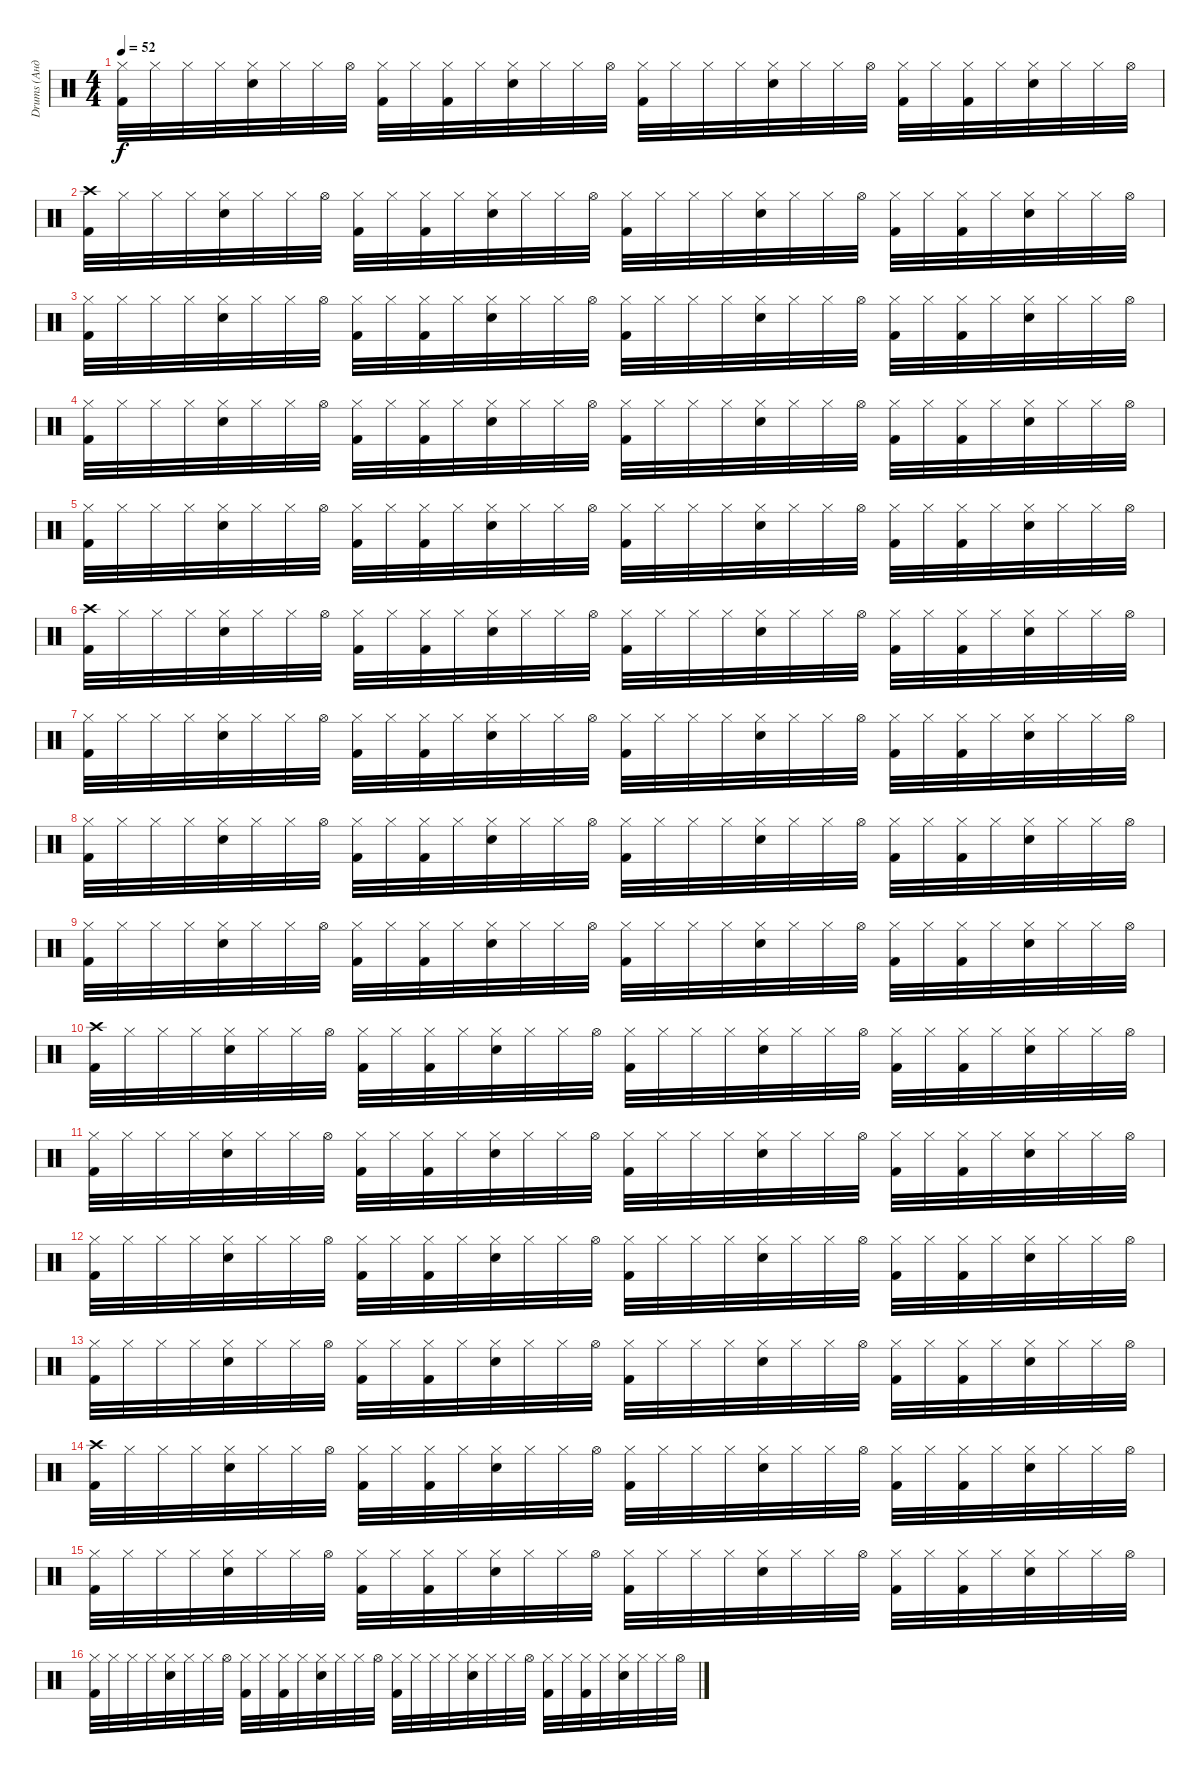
\track ("Drums (Андрей)" "Drums (Анд") {instrument percussion}
\staff {score}
\articulation defaults
\ts (4 4)
\tempo 52
\clef neutral
\ks c
("Hi-Hat (closed)" "Kick (hit) 2").32{dy f} "Hi-Hat (closed)".32 "Hi-Hat (closed)".32 "Hi-Hat (closed)".32 ("Hi-Hat (closed)" "Snare (hit) 2").32 "Hi-Hat (closed)".32 "Hi-Hat (closed)".32 "Hi-Hat (open)".32 ("Hi-Hat (closed)" "Kick (hit) 2").32 "Hi-Hat (closed)".32 ("Hi-Hat (closed)" "Kick (hit) 2").32 "Hi-Hat (closed)".32 ("Hi-Hat (closed)" "Snare (hit) 2").32 "Hi-Hat (closed)".32 "Hi-Hat (closed)".32 "Hi-Hat (open)".32 ("Hi-Hat (closed)" "Kick (hit) 2").32 "Hi-Hat (closed)".32 "Hi-Hat (closed)".32 "Hi-Hat (closed)".32 ("Hi-Hat (closed)" "Snare (hit) 2").32 "Hi-Hat (closed)".32 "Hi-Hat (closed)".32 "Hi-Hat (open)".32 ("Hi-Hat (closed)" "Kick (hit) 2").32 "Hi-Hat (closed)".32 ("Hi-Hat (closed)" "Kick (hit) 2").32 "Hi-Hat (closed)".32 ("Hi-Hat (closed)" "Snare (hit) 2").32 "Hi-Hat (closed)".32 "Hi-Hat (closed)".32 "Hi-Hat (open)".32 |
("Crash high (hit)" "Kick (hit) 2").32 "Hi-Hat (closed)".32 "Hi-Hat (closed)".32 "Hi-Hat (closed)".32 ("Hi-Hat (closed)" "Snare (hit) 2").32 "Hi-Hat (closed)".32 "Hi-Hat (closed)".32 "Hi-Hat (open)".32 ("Hi-Hat (closed)" "Kick (hit) 2").32 "Hi-Hat (closed)".32 ("Hi-Hat (closed)" "Kick (hit) 2").32 "Hi-Hat (closed)".32 ("Hi-Hat (closed)" "Snare (hit) 2").32 "Hi-Hat (closed)".32 "Hi-Hat (closed)".32 "Hi-Hat (open)".32 ("Hi-Hat (closed)" "Kick (hit) 2").32 "Hi-Hat (closed)".32 "Hi-Hat (closed)".32 "Hi-Hat (closed)".32 ("Hi-Hat (closed)" "Snare (hit) 2").32 "Hi-Hat (closed)".32 "Hi-Hat (closed)".32 "Hi-Hat (open)".32 ("Hi-Hat (closed)" "Kick (hit) 2").32 "Hi-Hat (closed)".32 ("Hi-Hat (closed)" "Kick (hit) 2").32 "Hi-Hat (closed)".32 ("Hi-Hat (closed)" "Snare (hit) 2").32 "Hi-Hat (closed)".32 "Hi-Hat (closed)".32 "Hi-Hat (open)".32 |
("Hi-Hat (closed)" "Kick (hit) 2").32 "Hi-Hat (closed)".32 "Hi-Hat (closed)".32 "Hi-Hat (closed)".32 ("Hi-Hat (closed)" "Snare (hit) 2").32 "Hi-Hat (closed)".32 "Hi-Hat (closed)".32 "Hi-Hat (open)".32 ("Hi-Hat (closed)" "Kick (hit) 2").32 "Hi-Hat (closed)".32 ("Hi-Hat (closed)" "Kick (hit) 2").32 "Hi-Hat (closed)".32 ("Hi-Hat (closed)" "Snare (hit) 2").32 "Hi-Hat (closed)".32 "Hi-Hat (closed)".32 "Hi-Hat (open)".32 ("Hi-Hat (closed)" "Kick (hit) 2").32 "Hi-Hat (closed)".32 "Hi-Hat (closed)".32 "Hi-Hat (closed)".32 ("Hi-Hat (closed)" "Snare (hit) 2").32 "Hi-Hat (closed)".32 "Hi-Hat (closed)".32 "Hi-Hat (open)".32 ("Hi-Hat (closed)" "Kick (hit) 2").32 "Hi-Hat (closed)".32 ("Hi-Hat (closed)" "Kick (hit) 2").32 "Hi-Hat (closed)".32 ("Hi-Hat (closed)" "Snare (hit) 2").32 "Hi-Hat (closed)".32 "Hi-Hat (closed)".32 "Hi-Hat (open)".32 |
("Hi-Hat (closed)" "Kick (hit) 2").32 "Hi-Hat (closed)".32 "Hi-Hat (closed)".32 "Hi-Hat (closed)".32 ("Hi-Hat (closed)" "Snare (hit) 2").32 "Hi-Hat (closed)".32 "Hi-Hat (closed)".32 "Hi-Hat (open)".32 ("Hi-Hat (closed)" "Kick (hit) 2").32 "Hi-Hat (closed)".32 ("Hi-Hat (closed)" "Kick (hit) 2").32 "Hi-Hat (closed)".32 ("Hi-Hat (closed)" "Snare (hit) 2").32 "Hi-Hat (closed)".32 "Hi-Hat (closed)".32 "Hi-Hat (open)".32 ("Hi-Hat (closed)" "Kick (hit) 2").32 "Hi-Hat (closed)".32 "Hi-Hat (closed)".32 "Hi-Hat (closed)".32 ("Hi-Hat (closed)" "Snare (hit) 2").32 "Hi-Hat (closed)".32 "Hi-Hat (closed)".32 "Hi-Hat (open)".32 ("Hi-Hat (closed)" "Kick (hit) 2").32 "Hi-Hat (closed)".32 ("Hi-Hat (closed)" "Kick (hit) 2").32 "Hi-Hat (closed)".32 ("Hi-Hat (closed)" "Snare (hit) 2").32 "Hi-Hat (closed)".32 "Hi-Hat (closed)".32 "Hi-Hat (open)".32 |
("Hi-Hat (closed)" "Kick (hit) 2").32 "Hi-Hat (closed)".32 "Hi-Hat (closed)".32 "Hi-Hat (closed)".32 ("Hi-Hat (closed)" "Snare (hit) 2").32 "Hi-Hat (closed)".32 "Hi-Hat (closed)".32 "Hi-Hat (open)".32 ("Hi-Hat (closed)" "Kick (hit) 2").32 "Hi-Hat (closed)".32 ("Hi-Hat (closed)" "Kick (hit) 2").32 "Hi-Hat (closed)".32 ("Hi-Hat (closed)" "Snare (hit) 2").32 "Hi-Hat (closed)".32 "Hi-Hat (closed)".32 "Hi-Hat (open)".32 ("Hi-Hat (closed)" "Kick (hit) 2").32 "Hi-Hat (closed)".32 "Hi-Hat (closed)".32 "Hi-Hat (closed)".32 ("Hi-Hat (closed)" "Snare (hit) 2").32 "Hi-Hat (closed)".32 "Hi-Hat (closed)".32 "Hi-Hat (open)".32 ("Hi-Hat (closed)" "Kick (hit) 2").32 "Hi-Hat (closed)".32 ("Hi-Hat (closed)" "Kick (hit) 2").32 "Hi-Hat (closed)".32 ("Hi-Hat (closed)" "Snare (hit) 2").32 "Hi-Hat (closed)".32 "Hi-Hat (closed)".32 "Hi-Hat (open)".32 |
("Crash high (hit)" "Kick (hit) 2").32 "Hi-Hat (closed)".32 "Hi-Hat (closed)".32 "Hi-Hat (closed)".32 ("Hi-Hat (closed)" "Snare (hit) 2").32 "Hi-Hat (closed)".32 "Hi-Hat (closed)".32 "Hi-Hat (open)".32 ("Hi-Hat (closed)" "Kick (hit) 2").32 "Hi-Hat (closed)".32 ("Hi-Hat (closed)" "Kick (hit) 2").32 "Hi-Hat (closed)".32 ("Hi-Hat (closed)" "Snare (hit) 2").32 "Hi-Hat (closed)".32 "Hi-Hat (closed)".32 "Hi-Hat (open)".32 ("Hi-Hat (closed)" "Kick (hit) 2").32 "Hi-Hat (closed)".32 "Hi-Hat (closed)".32 "Hi-Hat (closed)".32 ("Hi-Hat (closed)" "Snare (hit) 2").32 "Hi-Hat (closed)".32 "Hi-Hat (closed)".32 "Hi-Hat (open)".32 ("Hi-Hat (closed)" "Kick (hit) 2").32 "Hi-Hat (closed)".32 ("Hi-Hat (closed)" "Kick (hit) 2").32 "Hi-Hat (closed)".32 ("Hi-Hat (closed)" "Snare (hit) 2").32 "Hi-Hat (closed)".32 "Hi-Hat (closed)".32 "Hi-Hat (open)".32 |
("Hi-Hat (closed)" "Kick (hit) 2").32 "Hi-Hat (closed)".32 "Hi-Hat (closed)".32 "Hi-Hat (closed)".32 ("Hi-Hat (closed)" "Snare (hit) 2").32 "Hi-Hat (closed)".32 "Hi-Hat (closed)".32 "Hi-Hat (open)".32 ("Hi-Hat (closed)" "Kick (hit) 2").32 "Hi-Hat (closed)".32 ("Hi-Hat (closed)" "Kick (hit) 2").32 "Hi-Hat (closed)".32 ("Hi-Hat (closed)" "Snare (hit) 2").32 "Hi-Hat (closed)".32 "Hi-Hat (closed)".32 "Hi-Hat (open)".32 ("Hi-Hat (closed)" "Kick (hit) 2").32 "Hi-Hat (closed)".32 "Hi-Hat (closed)".32 "Hi-Hat (closed)".32 ("Hi-Hat (closed)" "Snare (hit) 2").32 "Hi-Hat (closed)".32 "Hi-Hat (closed)".32 "Hi-Hat (open)".32 ("Hi-Hat (closed)" "Kick (hit) 2").32 "Hi-Hat (closed)".32 ("Hi-Hat (closed)" "Kick (hit) 2").32 "Hi-Hat (closed)".32 ("Hi-Hat (closed)" "Snare (hit) 2").32 "Hi-Hat (closed)".32 "Hi-Hat (closed)".32 "Hi-Hat (open)".32 |
("Hi-Hat (closed)" "Kick (hit) 2").32 "Hi-Hat (closed)".32 "Hi-Hat (closed)".32 "Hi-Hat (closed)".32 ("Hi-Hat (closed)" "Snare (hit) 2").32 "Hi-Hat (closed)".32 "Hi-Hat (closed)".32 "Hi-Hat (open)".32 ("Hi-Hat (closed)" "Kick (hit) 2").32 "Hi-Hat (closed)".32 ("Hi-Hat (closed)" "Kick (hit) 2").32 "Hi-Hat (closed)".32 ("Hi-Hat (closed)" "Snare (hit) 2").32 "Hi-Hat (closed)".32 "Hi-Hat (closed)".32 "Hi-Hat (open)".32 ("Hi-Hat (closed)" "Kick (hit) 2").32 "Hi-Hat (closed)".32 "Hi-Hat (closed)".32 "Hi-Hat (closed)".32 ("Hi-Hat (closed)" "Snare (hit) 2").32 "Hi-Hat (closed)".32 "Hi-Hat (closed)".32 "Hi-Hat (open)".32 ("Hi-Hat (closed)" "Kick (hit) 2").32 "Hi-Hat (closed)".32 ("Hi-Hat (closed)" "Kick (hit) 2").32 "Hi-Hat (closed)".32 ("Hi-Hat (closed)" "Snare (hit) 2").32 "Hi-Hat (closed)".32 "Hi-Hat (closed)".32 "Hi-Hat (open)".32 |
("Hi-Hat (closed)" "Kick (hit) 2").32 "Hi-Hat (closed)".32 "Hi-Hat (closed)".32 "Hi-Hat (closed)".32 ("Hi-Hat (closed)" "Snare (hit) 2").32 "Hi-Hat (closed)".32 "Hi-Hat (closed)".32 "Hi-Hat (open)".32 ("Hi-Hat (closed)" "Kick (hit) 2").32 "Hi-Hat (closed)".32 ("Hi-Hat (closed)" "Kick (hit) 2").32 "Hi-Hat (closed)".32 ("Hi-Hat (closed)" "Snare (hit) 2").32 "Hi-Hat (closed)".32 "Hi-Hat (closed)".32 "Hi-Hat (open)".32 ("Hi-Hat (closed)" "Kick (hit) 2").32 "Hi-Hat (closed)".32 "Hi-Hat (closed)".32 "Hi-Hat (closed)".32 ("Hi-Hat (closed)" "Snare (hit) 2").32 "Hi-Hat (closed)".32 "Hi-Hat (closed)".32 "Hi-Hat (open)".32 ("Hi-Hat (closed)" "Kick (hit) 2").32 "Hi-Hat (closed)".32 ("Hi-Hat (closed)" "Kick (hit) 2").32 "Hi-Hat (closed)".32 ("Hi-Hat (closed)" "Snare (hit) 2").32 "Hi-Hat (closed)".32 "Hi-Hat (closed)".32 "Hi-Hat (open)".32 |
("Crash high (hit)" "Kick (hit) 2").32 "Hi-Hat (closed)".32 "Hi-Hat (closed)".32 "Hi-Hat (closed)".32 ("Hi-Hat (closed)" "Snare (hit) 2").32 "Hi-Hat (closed)".32 "Hi-Hat (closed)".32 "Hi-Hat (open)".32 ("Hi-Hat (closed)" "Kick (hit) 2").32 "Hi-Hat (closed)".32 ("Hi-Hat (closed)" "Kick (hit) 2").32 "Hi-Hat (closed)".32 ("Hi-Hat (closed)" "Snare (hit) 2").32 "Hi-Hat (closed)".32 "Hi-Hat (closed)".32 "Hi-Hat (open)".32 ("Hi-Hat (closed)" "Kick (hit) 2").32 "Hi-Hat (closed)".32 "Hi-Hat (closed)".32 "Hi-Hat (closed)".32 ("Hi-Hat (closed)" "Snare (hit) 2").32 "Hi-Hat (closed)".32 "Hi-Hat (closed)".32 "Hi-Hat (open)".32 ("Hi-Hat (closed)" "Kick (hit) 2").32 "Hi-Hat (closed)".32 ("Hi-Hat (closed)" "Kick (hit) 2").32 "Hi-Hat (closed)".32 ("Hi-Hat (closed)" "Snare (hit) 2").32 "Hi-Hat (closed)".32 "Hi-Hat (closed)".32 "Hi-Hat (open)".32 |
("Hi-Hat (closed)" "Kick (hit) 2").32 "Hi-Hat (closed)".32 "Hi-Hat (closed)".32 "Hi-Hat (closed)".32 ("Hi-Hat (closed)" "Snare (hit) 2").32 "Hi-Hat (closed)".32 "Hi-Hat (closed)".32 "Hi-Hat (open)".32 ("Hi-Hat (closed)" "Kick (hit) 2").32 "Hi-Hat (closed)".32 ("Hi-Hat (closed)" "Kick (hit) 2").32 "Hi-Hat (closed)".32 ("Hi-Hat (closed)" "Snare (hit) 2").32 "Hi-Hat (closed)".32 "Hi-Hat (closed)".32 "Hi-Hat (open)".32 ("Hi-Hat (closed)" "Kick (hit) 2").32 "Hi-Hat (closed)".32 "Hi-Hat (closed)".32 "Hi-Hat (closed)".32 ("Hi-Hat (closed)" "Snare (hit) 2").32 "Hi-Hat (closed)".32 "Hi-Hat (closed)".32 "Hi-Hat (open)".32 ("Hi-Hat (closed)" "Kick (hit) 2").32 "Hi-Hat (closed)".32 ("Hi-Hat (closed)" "Kick (hit) 2").32 "Hi-Hat (closed)".32 ("Hi-Hat (closed)" "Snare (hit) 2").32 "Hi-Hat (closed)".32 "Hi-Hat (closed)".32 "Hi-Hat (open)".32 |
("Hi-Hat (closed)" "Kick (hit) 2").32 "Hi-Hat (closed)".32 "Hi-Hat (closed)".32 "Hi-Hat (closed)".32 ("Hi-Hat (closed)" "Snare (hit) 2").32 "Hi-Hat (closed)".32 "Hi-Hat (closed)".32 "Hi-Hat (open)".32 ("Hi-Hat (closed)" "Kick (hit) 2").32 "Hi-Hat (closed)".32 ("Hi-Hat (closed)" "Kick (hit) 2").32 "Hi-Hat (closed)".32 ("Hi-Hat (closed)" "Snare (hit) 2").32 "Hi-Hat (closed)".32 "Hi-Hat (closed)".32 "Hi-Hat (open)".32 ("Hi-Hat (closed)" "Kick (hit) 2").32 "Hi-Hat (closed)".32 "Hi-Hat (closed)".32 "Hi-Hat (closed)".32 ("Hi-Hat (closed)" "Snare (hit) 2").32 "Hi-Hat (closed)".32 "Hi-Hat (closed)".32 "Hi-Hat (open)".32 ("Hi-Hat (closed)" "Kick (hit) 2").32 "Hi-Hat (closed)".32 ("Hi-Hat (closed)" "Kick (hit) 2").32 "Hi-Hat (closed)".32 ("Hi-Hat (closed)" "Snare (hit) 2").32 "Hi-Hat (closed)".32 "Hi-Hat (closed)".32 "Hi-Hat (open)".32 |
("Hi-Hat (closed)" "Kick (hit) 2").32 "Hi-Hat (closed)".32 "Hi-Hat (closed)".32 "Hi-Hat (closed)".32 ("Hi-Hat (closed)" "Snare (hit) 2").32 "Hi-Hat (closed)".32 "Hi-Hat (closed)".32 "Hi-Hat (open)".32 ("Hi-Hat (closed)" "Kick (hit) 2").32 "Hi-Hat (closed)".32 ("Hi-Hat (closed)" "Kick (hit) 2").32 "Hi-Hat (closed)".32 ("Hi-Hat (closed)" "Snare (hit) 2").32 "Hi-Hat (closed)".32 "Hi-Hat (closed)".32 "Hi-Hat (open)".32 ("Hi-Hat (closed)" "Kick (hit) 2").32 "Hi-Hat (closed)".32 "Hi-Hat (closed)".32 "Hi-Hat (closed)".32 ("Hi-Hat (closed)" "Snare (hit) 2").32 "Hi-Hat (closed)".32 "Hi-Hat (closed)".32 "Hi-Hat (open)".32 ("Hi-Hat (closed)" "Kick (hit) 2").32 "Hi-Hat (closed)".32 ("Hi-Hat (closed)" "Kick (hit) 2").32 "Hi-Hat (closed)".32 ("Hi-Hat (closed)" "Snare (hit) 2").32 "Hi-Hat (closed)".32 "Hi-Hat (closed)".32 "Hi-Hat (open)".32 |
("Crash high (hit)" "Kick (hit) 2").32 "Hi-Hat (closed)".32 "Hi-Hat (closed)".32 "Hi-Hat (closed)".32 ("Hi-Hat (closed)" "Snare (hit) 2").32 "Hi-Hat (closed)".32 "Hi-Hat (closed)".32 "Hi-Hat (open)".32 ("Hi-Hat (closed)" "Kick (hit) 2").32 "Hi-Hat (closed)".32 ("Hi-Hat (closed)" "Kick (hit) 2").32 "Hi-Hat (closed)".32 ("Hi-Hat (closed)" "Snare (hit) 2").32 "Hi-Hat (closed)".32 "Hi-Hat (closed)".32 "Hi-Hat (open)".32 ("Hi-Hat (closed)" "Kick (hit) 2").32 "Hi-Hat (closed)".32 "Hi-Hat (closed)".32 "Hi-Hat (closed)".32 ("Hi-Hat (closed)" "Snare (hit) 2").32 "Hi-Hat (closed)".32 "Hi-Hat (closed)".32 "Hi-Hat (open)".32 ("Hi-Hat (closed)" "Kick (hit) 2").32 "Hi-Hat (closed)".32 ("Hi-Hat (closed)" "Kick (hit) 2").32 "Hi-Hat (closed)".32 ("Hi-Hat (closed)" "Snare (hit) 2").32 "Hi-Hat (closed)".32 "Hi-Hat (closed)".32 "Hi-Hat (open)".32 |
("Hi-Hat (closed)" "Kick (hit) 2").32 "Hi-Hat (closed)".32 "Hi-Hat (closed)".32 "Hi-Hat (closed)".32 ("Hi-Hat (closed)" "Snare (hit) 2").32 "Hi-Hat (closed)".32 "Hi-Hat (closed)".32 "Hi-Hat (open)".32 ("Hi-Hat (closed)" "Kick (hit) 2").32 "Hi-Hat (closed)".32 ("Hi-Hat (closed)" "Kick (hit) 2").32 "Hi-Hat (closed)".32 ("Hi-Hat (closed)" "Snare (hit) 2").32 "Hi-Hat (closed)".32 "Hi-Hat (closed)".32 "Hi-Hat (open)".32 ("Hi-Hat (closed)" "Kick (hit) 2").32 "Hi-Hat (closed)".32 "Hi-Hat (closed)".32 "Hi-Hat (closed)".32 ("Hi-Hat (closed)" "Snare (hit) 2").32 "Hi-Hat (closed)".32 "Hi-Hat (closed)".32 "Hi-Hat (open)".32 ("Hi-Hat (closed)" "Kick (hit) 2").32 "Hi-Hat (closed)".32 ("Hi-Hat (closed)" "Kick (hit) 2").32 "Hi-Hat (closed)".32 ("Hi-Hat (closed)" "Snare (hit) 2").32 "Hi-Hat (closed)".32 "Hi-Hat (closed)".32 "Hi-Hat (open)".32 |
("Hi-Hat (closed)" "Kick (hit) 2").32 "Hi-Hat (closed)".32 "Hi-Hat (closed)".32 "Hi-Hat (closed)".32 ("Hi-Hat (closed)" "Snare (hit) 2").32 "Hi-Hat (closed)".32 "Hi-Hat (closed)".32 "Hi-Hat (open)".32 ("Hi-Hat (closed)" "Kick (hit) 2").32 "Hi-Hat (closed)".32 ("Hi-Hat (closed)" "Kick (hit) 2").32 "Hi-Hat (closed)".32 ("Hi-Hat (closed)" "Snare (hit) 2").32 "Hi-Hat (closed)".32 "Hi-Hat (closed)".32 "Hi-Hat (open)".32 ("Hi-Hat (closed)" "Kick (hit) 2").32 "Hi-Hat (closed)".32 "Hi-Hat (closed)".32 "Hi-Hat (closed)".32 ("Hi-Hat (closed)" "Snare (hit) 2").32 "Hi-Hat (closed)".32 "Hi-Hat (closed)".32 "Hi-Hat (open)".32 ("Hi-Hat (closed)" "Kick (hit) 2").32 "Hi-Hat (closed)".32 ("Hi-Hat (closed)" "Kick (hit) 2").32 "Hi-Hat (closed)".32 ("Hi-Hat (closed)" "Snare (hit) 2").32 "Hi-Hat (closed)".32 "Hi-Hat (closed)".32 "Hi-Hat (open)".32
